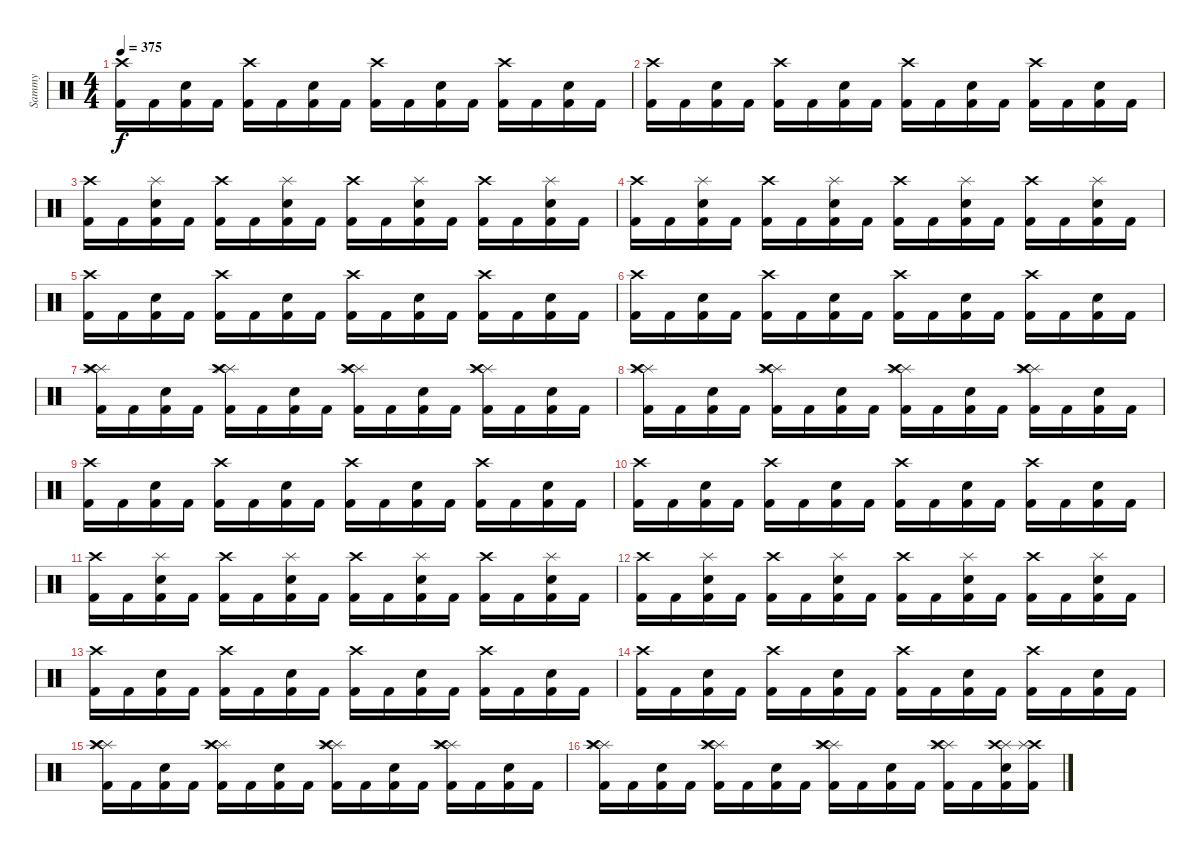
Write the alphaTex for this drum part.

\track ("Sammy" "Sammy") {instrument percussion}
\staff {score}
\articulation defaults
\ts (4 4)
\tempo 375
\clef neutral
\ks c
("Crash high (hit)" "Kick (hit) 2").16{dy f} "Kick (hit) 2".16 ("Electric Snare (hit)" "Kick (hit) 2").16 "Kick (hit) 2".16 ("Crash high (hit)" "Kick (hit) 2").16 "Kick (hit) 2".16 ("Electric Snare (hit)" "Kick (hit) 2").16 "Kick (hit) 2".16 ("Crash high (hit)" "Kick (hit) 2").16 "Kick (hit) 2".16 ("Electric Snare (hit)" "Kick (hit) 2").16 "Kick (hit) 2".16 ("Crash high (hit)" "Kick (hit) 2").16 "Kick (hit) 2".16 ("Electric Snare (hit)" "Kick (hit) 2").16 "Kick (hit) 2".16 |
("Crash high (hit)" "Kick (hit) 2").16 "Kick (hit) 2".16 ("Electric Snare (hit)" "Kick (hit) 2").16 "Kick (hit) 2".16 ("Crash high (hit)" "Kick (hit) 2").16 "Kick (hit) 2".16 ("Electric Snare (hit)" "Kick (hit) 2").16 "Kick (hit) 2".16 ("Crash high (hit)" "Kick (hit) 2").16 "Kick (hit) 2".16 ("Electric Snare (hit)" "Kick (hit) 2").16 "Kick (hit) 2".16 ("Crash high (hit)" "Kick (hit) 2").16 "Kick (hit) 2".16 ("Electric Snare (hit)" "Kick (hit) 2").16 "Kick (hit) 2".16 |
("Crash high (hit)" "Kick (hit) 2").16 "Kick (hit) 2".16 ("Splash (hit)" "Electric Snare (hit)" "Kick (hit) 2").16 "Kick (hit) 2".16 ("Crash high (hit)" "Kick (hit) 2").16 "Kick (hit) 2".16 ("Splash (hit)" "Electric Snare (hit)" "Kick (hit) 2").16 "Kick (hit) 2".16 ("Crash high (hit)" "Kick (hit) 2").16 "Kick (hit) 2".16 ("Splash (hit)" "Electric Snare (hit)" "Kick (hit) 2").16 "Kick (hit) 2".16 ("Crash high (hit)" "Kick (hit) 2").16 "Kick (hit) 2".16 ("Splash (hit)" "Electric Snare (hit)" "Kick (hit) 2").16 "Kick (hit) 2".16 |
("Crash high (hit)" "Kick (hit) 2").16 "Kick (hit) 2".16 ("Splash (hit)" "Electric Snare (hit)" "Kick (hit) 2").16 "Kick (hit) 2".16 ("Crash high (hit)" "Kick (hit) 2").16 "Kick (hit) 2".16 ("Splash (hit)" "Electric Snare (hit)" "Kick (hit) 2").16 "Kick (hit) 2".16 ("Crash high (hit)" "Kick (hit) 2").16 "Kick (hit) 2".16 ("Splash (hit)" "Electric Snare (hit)" "Kick (hit) 2").16 "Kick (hit) 2".16 ("Crash high (hit)" "Kick (hit) 2").16 "Kick (hit) 2".16 ("Splash (hit)" "Electric Snare (hit)" "Kick (hit) 2").16 "Kick (hit) 2".16 |
("Crash high (hit)" "Kick (hit) 2").16 "Kick (hit) 2".16 ("Electric Snare (hit)" "Kick (hit) 2").16 "Kick (hit) 2".16 ("Crash high (hit)" "Kick (hit) 2").16 "Kick (hit) 2".16 ("Electric Snare (hit)" "Kick (hit) 2").16 "Kick (hit) 2".16 ("Crash high (hit)" "Kick (hit) 2").16 "Kick (hit) 2".16 ("Electric Snare (hit)" "Kick (hit) 2").16 "Kick (hit) 2".16 ("Crash high (hit)" "Kick (hit) 2").16 "Kick (hit) 2".16 ("Electric Snare (hit)" "Kick (hit) 2").16 "Kick (hit) 2".16 |
("Crash high (hit)" "Kick (hit) 2").16 "Kick (hit) 2".16 ("Electric Snare (hit)" "Kick (hit) 2").16 "Kick (hit) 2".16 ("Crash high (hit)" "Kick (hit) 2").16 "Kick (hit) 2".16 ("Electric Snare (hit)" "Kick (hit) 2").16 "Kick (hit) 2".16 ("Crash high (hit)" "Kick (hit) 2").16 "Kick (hit) 2".16 ("Electric Snare (hit)" "Kick (hit) 2").16 "Kick (hit) 2".16 ("Crash high (hit)" "Kick (hit) 2").16 "Kick (hit) 2".16 ("Electric Snare (hit)" "Kick (hit) 2").16 "Kick (hit) 2".16 |
("Splash (hit)" "Splash (hit)" "Crash high (hit)" "Kick (hit) 2").16 "Kick (hit) 2".16 ("Electric Snare (hit)" "Kick (hit) 2").16 "Kick (hit) 2".16 ("Splash (hit)" "Splash (hit)" "Crash high (hit)" "Kick (hit) 2").16 "Kick (hit) 2".16 ("Electric Snare (hit)" "Kick (hit) 2").16 "Kick (hit) 2".16 ("Splash (hit)" "Splash (hit)" "Crash high (hit)" "Kick (hit) 2").16 "Kick (hit) 2".16 ("Electric Snare (hit)" "Kick (hit) 2").16 "Kick (hit) 2".16 ("Splash (hit)" "Splash (hit)" "Crash high (hit)" "Kick (hit) 2").16 "Kick (hit) 2".16 ("Electric Snare (hit)" "Kick (hit) 2").16 "Kick (hit) 2".16 |
("Splash (hit)" "Splash (hit)" "Crash high (hit)" "Kick (hit) 2").16 "Kick (hit) 2".16 ("Electric Snare (hit)" "Kick (hit) 2").16 "Kick (hit) 2".16 ("Splash (hit)" "Splash (hit)" "Crash high (hit)" "Kick (hit) 2").16 "Kick (hit) 2".16 ("Electric Snare (hit)" "Kick (hit) 2").16 "Kick (hit) 2".16 ("Splash (hit)" "Splash (hit)" "Crash high (hit)" "Kick (hit) 2").16 "Kick (hit) 2".16 ("Electric Snare (hit)" "Kick (hit) 2").16 "Kick (hit) 2".16 ("Splash (hit)" "Splash (hit)" "Crash high (hit)" "Kick (hit) 2").16 "Kick (hit) 2".16 ("Electric Snare (hit)" "Kick (hit) 2").16 "Kick (hit) 2".16 |
("Crash high (hit)" "Kick (hit) 2").16 "Kick (hit) 2".16 ("Electric Snare (hit)" "Kick (hit) 2").16 "Kick (hit) 2".16 ("Crash high (hit)" "Kick (hit) 2").16 "Kick (hit) 2".16 ("Electric Snare (hit)" "Kick (hit) 2").16 "Kick (hit) 2".16 ("Crash high (hit)" "Kick (hit) 2").16 "Kick (hit) 2".16 ("Electric Snare (hit)" "Kick (hit) 2").16 "Kick (hit) 2".16 ("Crash high (hit)" "Kick (hit) 2").16 "Kick (hit) 2".16 ("Electric Snare (hit)" "Kick (hit) 2").16 "Kick (hit) 2".16 |
("Crash high (hit)" "Kick (hit) 2").16 "Kick (hit) 2".16 ("Electric Snare (hit)" "Kick (hit) 2").16 "Kick (hit) 2".16 ("Crash high (hit)" "Kick (hit) 2").16 "Kick (hit) 2".16 ("Electric Snare (hit)" "Kick (hit) 2").16 "Kick (hit) 2".16 ("Crash high (hit)" "Kick (hit) 2").16 "Kick (hit) 2".16 ("Electric Snare (hit)" "Kick (hit) 2").16 "Kick (hit) 2".16 ("Crash high (hit)" "Kick (hit) 2").16 "Kick (hit) 2".16 ("Electric Snare (hit)" "Kick (hit) 2").16 "Kick (hit) 2".16 |
("Crash high (hit)" "Kick (hit) 2").16 "Kick (hit) 2".16 ("Splash (hit)" "Electric Snare (hit)" "Kick (hit) 2").16 "Kick (hit) 2".16 ("Crash high (hit)" "Kick (hit) 2").16 "Kick (hit) 2".16 ("Splash (hit)" "Electric Snare (hit)" "Kick (hit) 2").16 "Kick (hit) 2".16 ("Crash high (hit)" "Kick (hit) 2").16 "Kick (hit) 2".16 ("Splash (hit)" "Electric Snare (hit)" "Kick (hit) 2").16 "Kick (hit) 2".16 ("Crash high (hit)" "Kick (hit) 2").16 "Kick (hit) 2".16 ("Splash (hit)" "Electric Snare (hit)" "Kick (hit) 2").16 "Kick (hit) 2".16 |
("Crash high (hit)" "Kick (hit) 2").16 "Kick (hit) 2".16 ("Splash (hit)" "Electric Snare (hit)" "Kick (hit) 2").16 "Kick (hit) 2".16 ("Crash high (hit)" "Kick (hit) 2").16 "Kick (hit) 2".16 ("Splash (hit)" "Electric Snare (hit)" "Kick (hit) 2").16 "Kick (hit) 2".16 ("Crash high (hit)" "Kick (hit) 2").16 "Kick (hit) 2".16 ("Splash (hit)" "Electric Snare (hit)" "Kick (hit) 2").16 "Kick (hit) 2".16 ("Crash high (hit)" "Kick (hit) 2").16 "Kick (hit) 2".16 ("Splash (hit)" "Electric Snare (hit)" "Kick (hit) 2").16 "Kick (hit) 2".16 |
("Crash high (hit)" "Kick (hit) 2").16 "Kick (hit) 2".16 ("Electric Snare (hit)" "Kick (hit) 2").16 "Kick (hit) 2".16 ("Crash high (hit)" "Kick (hit) 2").16 "Kick (hit) 2".16 ("Electric Snare (hit)" "Kick (hit) 2").16 "Kick (hit) 2".16 ("Crash high (hit)" "Kick (hit) 2").16 "Kick (hit) 2".16 ("Electric Snare (hit)" "Kick (hit) 2").16 "Kick (hit) 2".16 ("Crash high (hit)" "Kick (hit) 2").16 "Kick (hit) 2".16 ("Electric Snare (hit)" "Kick (hit) 2").16 "Kick (hit) 2".16 |
("Crash high (hit)" "Kick (hit) 2").16 "Kick (hit) 2".16 ("Electric Snare (hit)" "Kick (hit) 2").16 "Kick (hit) 2".16 ("Crash high (hit)" "Kick (hit) 2").16 "Kick (hit) 2".16 ("Electric Snare (hit)" "Kick (hit) 2").16 "Kick (hit) 2".16 ("Crash high (hit)" "Kick (hit) 2").16 "Kick (hit) 2".16 ("Electric Snare (hit)" "Kick (hit) 2").16 "Kick (hit) 2".16 ("Crash high (hit)" "Kick (hit) 2").16 "Kick (hit) 2".16 ("Electric Snare (hit)" "Kick (hit) 2").16 "Kick (hit) 2".16 |
("Splash (hit)" "Splash (hit)" "Crash high (hit)" "Kick (hit) 2").16 "Kick (hit) 2".16 ("Electric Snare (hit)" "Kick (hit) 2").16 "Kick (hit) 2".16 ("Splash (hit)" "Splash (hit)" "Crash high (hit)" "Kick (hit) 2").16 "Kick (hit) 2".16 ("Electric Snare (hit)" "Kick (hit) 2").16 "Kick (hit) 2".16 ("Splash (hit)" "Splash (hit)" "Crash high (hit)" "Kick (hit) 2").16 "Kick (hit) 2".16 ("Electric Snare (hit)" "Kick (hit) 2").16 "Kick (hit) 2".16 ("Splash (hit)" "Splash (hit)" "Crash high (hit)" "Kick (hit) 2").16 "Kick (hit) 2".16 ("Electric Snare (hit)" "Kick (hit) 2").16 "Kick (hit) 2".16 |
("Splash (hit)" "Splash (hit)" "Crash high (hit)" "Kick (hit) 2").16 "Kick (hit) 2".16 ("Electric Snare (hit)" "Kick (hit) 2").16 "Kick (hit) 2".16 ("Splash (hit)" "Splash (hit)" "Crash high (hit)" "Kick (hit) 2").16 "Kick (hit) 2".16 ("Electric Snare (hit)" "Kick (hit) 2").16 "Kick (hit) 2".16 ("Splash (hit)" "Splash (hit)" "Crash high (hit)" "Kick (hit) 2").16 "Kick (hit) 2".16 ("Electric Snare (hit)" "Kick (hit) 2").16 "Kick (hit) 2".16 ("Splash (hit)" "Splash (hit)" "Crash high (hit)" "Kick (hit) 2").16 "Kick (hit) 2".16 ("Splash (hit)" "Crash high (hit)" "Electric Snare (hit)" "Kick (hit) 2").16 ("Crash high (hit)" "Splash (hit)" "Kick (hit) 2").16
